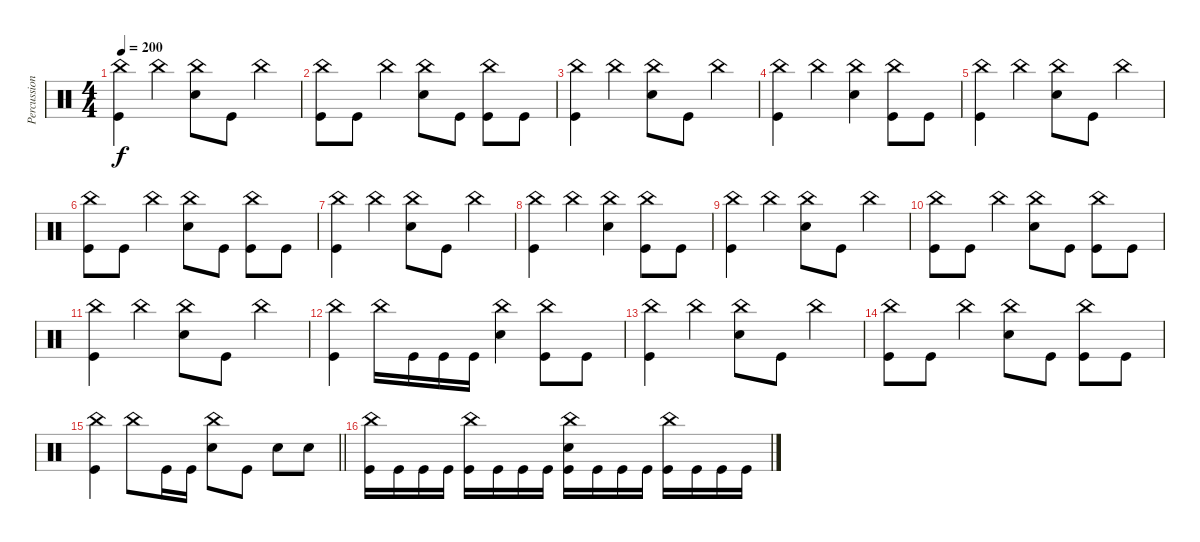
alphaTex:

\track ("Percussion" "Percussion") {instrument percussion}
\staff {score}
\articulation defaults
\ts (4 4)
\tempo 200
\clef neutral
\ks c
("China (hit)" "Kick (hit)").4{dy f} "China (hit)".4 ("China (hit)" "Electric Snare (hit)").8 "Kick (hit)".8 "China (hit)".4 |
("China (hit)" "Kick (hit)").8 "Kick (hit)".8 "China (hit)".4 ("China (hit)" "Electric Snare (hit)").8 "Kick (hit)".8 ("China (hit)" "Kick (hit)").8 "Kick (hit)".8 |
("China (hit)" "Kick (hit)").4 "China (hit)".4 ("China (hit)" "Electric Snare (hit)").8 "Kick (hit)".8 "China (hit)".4 |
("China (hit)" "Kick (hit)").4 "China (hit)".4 ("China (hit)" "Electric Snare (hit)").4 ("China (hit)" "Kick (hit)").8 "Kick (hit)".8 |
("China (hit)" "Kick (hit)").4 "China (hit)".4 ("China (hit)" "Electric Snare (hit)").8 "Kick (hit)".8 "China (hit)".4 |
("China (hit)" "Kick (hit)").8 "Kick (hit)".8 "China (hit)".4 ("China (hit)" "Electric Snare (hit)").8 "Kick (hit)".8 ("China (hit)" "Kick (hit)").8 "Kick (hit)".8 |
("China (hit)" "Kick (hit)").4 "China (hit)".4 ("China (hit)" "Electric Snare (hit)").8 "Kick (hit)".8 "China (hit)".4 |
("China (hit)" "Kick (hit)").4 "China (hit)".4 ("China (hit)" "Electric Snare (hit)").4 ("China (hit)" "Kick (hit)").8 "Kick (hit)".8 |
("China (hit)" "Kick (hit)").4 "China (hit)".4 ("China (hit)" "Electric Snare (hit)").8 "Kick (hit)".8 "China (hit)".4 |
("China (hit)" "Kick (hit)").8 "Kick (hit)".8 "China (hit)".4 ("China (hit)" "Electric Snare (hit)").8 "Kick (hit)".8 ("China (hit)" "Kick (hit)").8 "Kick (hit)".8 |
("China (hit)" "Kick (hit)").4 "China (hit)".4 ("China (hit)" "Electric Snare (hit)").8 "Kick (hit)".8 "China (hit)".4 |
("China (hit)" "Kick (hit)").4 "China (hit)".16 "Kick (hit)".16 "Kick (hit)".16 "Kick (hit)".16 ("China (hit)" "Electric Snare (hit)").4 ("China (hit)" "Kick (hit)").8 "Kick (hit)".8 |
("China (hit)" "Kick (hit)").4 "China (hit)".4 ("China (hit)" "Electric Snare (hit)").8 "Kick (hit)".8 "China (hit)".4 |
("China (hit)" "Kick (hit)").8 "Kick (hit)".8 "China (hit)".4 ("China (hit)" "Electric Snare (hit)").8 "Kick (hit)".8 ("China (hit)" "Kick (hit)").8 "Kick (hit)".8 |
\barLineRight lightlight
("China (hit)" "Kick (hit)").4 "China (hit)".8 "Kick (hit)".16 "Kick (hit)".16 ("China (hit)" "Electric Snare (hit)").8 "Kick (hit)".8 "Electric Snare (hit)".8 "Electric Snare (hit)".8 |
("China (hit)" "Kick (hit)").16 "Kick (hit)".16 "Kick (hit)".16 "Kick (hit)".16 ("China (hit)" "Kick (hit)").16 "Kick (hit)".16 "Kick (hit)".16 "Kick (hit)".16 ("China (hit)" "Electric Snare (hit)" "Kick (hit)").16 "Kick (hit)".16 "Kick (hit)".16 "Kick (hit)".16 ("China (hit)" "Kick (hit)").16 "Kick (hit)".16 "Kick (hit)".16 "Kick (hit)".16
